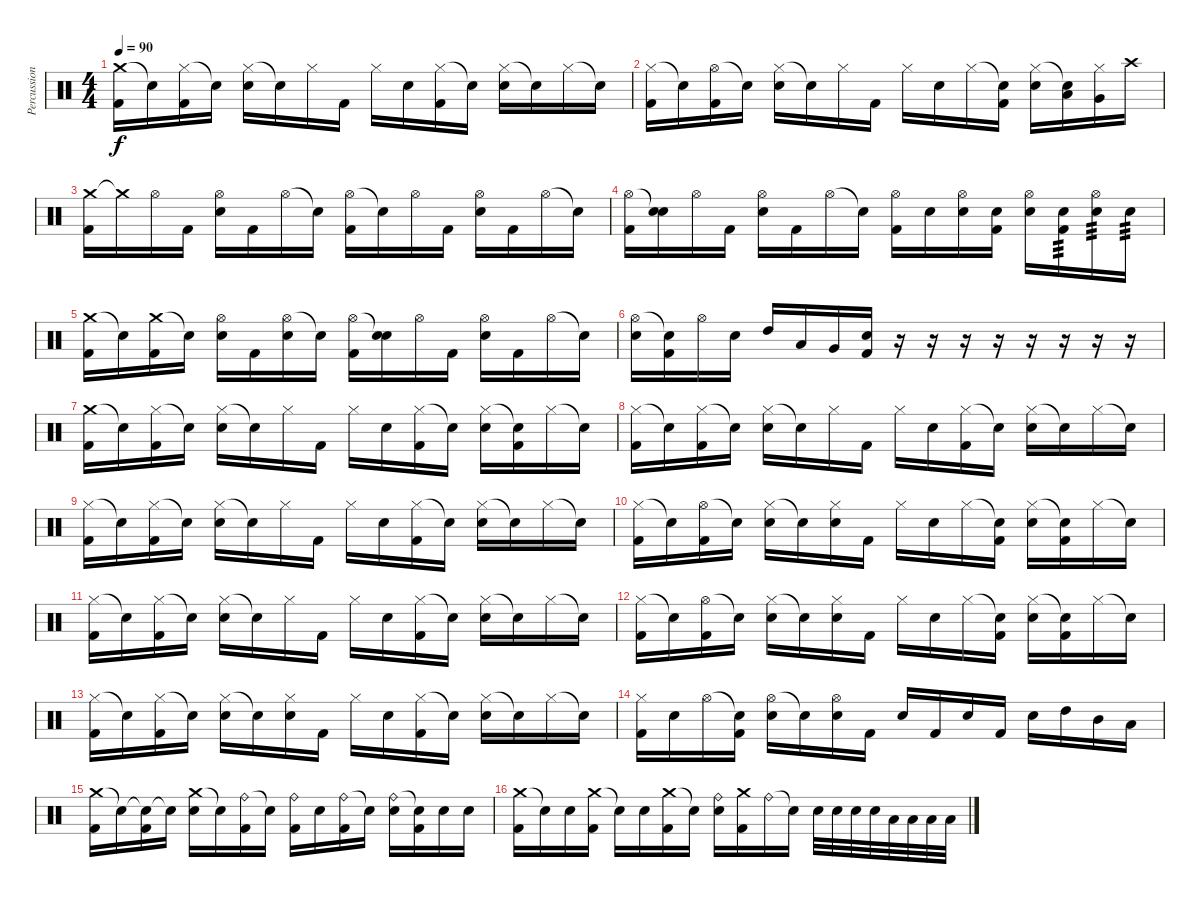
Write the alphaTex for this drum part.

\track ("Percussion" "Percussion") {instrument percussion}
\staff {score}
\articulation defaults
\ts (4 4)
\tempo 90
\clef neutral
\ks c
("Crash medium (hit)" "Kick (hit) 2").16{dy f} "Snare (hit)"{t}.16 ("Hi-Hat (closed)" "Kick (hit) 2").16 "Snare (hit)"{t}.16 ("Hi-Hat (closed)" "Snare (hit) 2").16 "Snare (hit)"{t}.16 "Hi-Hat (closed)".16 "Kick (hit) 2".16 "Hi-Hat (closed)".16 "Snare (hit) 2".16 ("Hi-Hat (closed)" "Kick (hit) 2").16 "Snare (hit)"{t}.16 ("Hi-Hat (closed)" "Snare (hit) 2").16 "Snare (hit)"{t}.16 "Hi-Hat (closed)".16 "Snare (hit)"{t}.16 |
("Hi-Hat (closed)" "Kick (hit) 2").16 "Snare (hit)"{t}.16 ("Hi-Hat (open)" "Kick (hit) 2").16 "Snare (hit)"{t}.16 ("Hi-Hat (closed)" "Snare (hit) 2").16 "Snare (hit)"{t}.16 "Hi-Hat (closed)".16 "Kick (hit) 2".16 "Hi-Hat (closed)".16 "Snare (hit) 2".16 "Hi-Hat (closed)".16 ("Snare (hit)"{t} "Kick (hit) 2").16 ("Hi-Hat (closed)" "Snare (hit) 2").16 ("Snare (hit)"{t} "Low Tom (hit)").16 ("Hi-Hat (closed)" "Very Low Tom (hit)").16 "Crash high (hit)".16 |
("Crash medium (hit)" "Kick (hit) 2").16 "Crash medium (hit)"{t}.16 "Hi-Hat (open)".16 "Kick (hit) 2".16 ("Hi-Hat (open)" "Snare (hit) 2").16 "Kick (hit) 2".16 "Hi-Hat (open)".16 "Snare (hit)"{t}.16 ("Hi-Hat (open)" "Kick (hit) 2").16 "Snare (hit)"{t}.16 "Hi-Hat (open)".16 "Kick (hit) 2".16 ("Hi-Hat (open)" "Snare (hit) 2").16 "Kick (hit) 2".16 "Hi-Hat (open)".16 "Snare (hit)"{t}.16 |
("Hi-Hat (open)" "Kick (hit) 2").16 ("Snare (hit)"{t} "Snare (hit) 2").16 "Hi-Hat (open)".16 "Kick (hit) 2".16 ("Hi-Hat (open)" "Snare (hit) 2").16 "Kick (hit) 2".16 "Hi-Hat (open)".16 "Snare (hit)"{t}.16 ("Hi-Hat (open)" "Kick (hit) 2").16 "Snare (hit) 2".16 ("Hi-Hat (open)" "Snare (hit) 2").16 ("Snare (hit) 2" "Kick (hit) 2").16 ("Hi-Hat (open)" "Snare (hit) 2").16 ("Snare (hit) 2" "Kick (hit) 2").16{tp 3} ("Hi-Hat (open)" "Snare (hit) 2").16{tp 3} "Snare (hit) 2".16{tp 3} |
("Crash medium (hit)" "Kick (hit) 2").16 "Snare (hit)"{t}.16 ("Crash medium (hit)" "Kick (hit) 2").16 "Snare (hit)"{t}.16 ("Hi-Hat (open)" "Snare (hit) 2").16 "Kick (hit) 2".16 ("Hi-Hat (open)" "Snare (hit) 2").16 "Snare (hit)"{t}.16 ("Hi-Hat (open)" "Kick (hit) 2").16 ("Snare (hit)"{t} "Snare (hit) 2").16 "Hi-Hat (open)".16 "Kick (hit) 2".16 ("Hi-Hat (open)" "Snare (hit) 2").16 "Kick (hit) 2".16 "Hi-Hat (open)".16 "Snare (hit)"{t}.16 |
("Hi-Hat (open)" "Snare (hit) 2").16 ("Snare (hit)"{t} "Kick (hit) 2").16 "Hi-Hat (open)".16 "Snare (hit) 2".16 "High Tom (hit)".16 "Low Tom (hit)".16 "Very Low Tom (hit)".16 ("Snare (hit) 2" "Kick (hit) 2").16 r.16 r.16 r.16 r.16 r.16 r.16 r.16 r.16 |
("Crash medium (hit)" "Kick (hit) 2").16 "Snare (hit)"{t}.16 ("Hi-Hat (closed)" "Kick (hit) 2").16 "Snare (hit)"{t}.16 ("Hi-Hat (closed)" "Snare (hit) 2").16 "Snare (hit)"{t}.16 "Hi-Hat (closed)".16 "Kick (hit) 2".16 "Hi-Hat (closed)".16 "Snare (hit) 2".16 ("Hi-Hat (closed)" "Kick (hit) 2").16 "Snare (hit)"{t}.16 ("Hi-Hat (closed)" "Snare (hit) 2").16 ("Snare (hit)"{t} "Kick (hit) 2").16 "Hi-Hat (closed)".16 "Snare (hit)"{t}.16 |
("Hi-Hat (closed)" "Kick (hit) 2").16 "Snare (hit)"{t}.16 ("Hi-Hat (closed)" "Kick (hit) 2").16 "Snare (hit)"{t}.16 ("Hi-Hat (closed)" "Snare (hit) 2").16 "Snare (hit)"{t}.16 "Hi-Hat (closed)".16 "Kick (hit) 2".16 "Hi-Hat (closed)".16 "Snare (hit) 2".16 ("Hi-Hat (closed)" "Kick (hit) 2").16 "Snare (hit)"{t}.16 ("Hi-Hat (closed)" "Snare (hit) 2").16 "Snare (hit)"{t}.16 "Hi-Hat (closed)".16 "Snare (hit)"{t}.16 |
("Hi-Hat (closed)" "Kick (hit) 2").16 "Snare (hit)"{t}.16 ("Hi-Hat (closed)" "Kick (hit) 2").16 "Snare (hit)"{t}.16 ("Hi-Hat (closed)" "Snare (hit) 2").16 "Snare (hit)"{t}.16 "Hi-Hat (closed)".16 "Kick (hit) 2".16 "Hi-Hat (closed)".16 "Snare (hit) 2".16 ("Hi-Hat (closed)" "Kick (hit) 2").16 "Snare (hit)"{t}.16 ("Hi-Hat (closed)" "Snare (hit) 2").16 "Snare (hit)"{t}.16 "Hi-Hat (closed)".16 "Snare (hit)"{t}.16 |
("Hi-Hat (closed)" "Kick (hit) 2").16 "Snare (hit)"{t}.16 ("Hi-Hat (open)" "Kick (hit) 2").16 "Snare (hit)"{t}.16 ("Hi-Hat (closed)" "Snare (hit) 2").16 "Snare (hit)"{t}.16 ("Hi-Hat (closed)" "Snare (hit) 2").16 "Kick (hit) 2".16 "Hi-Hat (closed)".16 "Snare (hit) 2".16 "Hi-Hat (closed)".16 ("Snare (hit)"{t} "Kick (hit) 2").16 ("Hi-Hat (closed)" "Snare (hit) 2").16 ("Snare (hit)"{t} "Kick (hit) 2").16 "Hi-Hat (closed)".16 "Snare (hit)"{t}.16 |
("Hi-Hat (closed)" "Kick (hit) 2").16 "Snare (hit)"{t}.16 ("Hi-Hat (closed)" "Kick (hit) 2").16 "Snare (hit)"{t}.16 ("Hi-Hat (closed)" "Snare (hit) 2").16 "Snare (hit)"{t}.16 "Hi-Hat (closed)".16 "Kick (hit) 2".16 "Hi-Hat (closed)".16 "Snare (hit) 2".16 ("Hi-Hat (closed)" "Kick (hit) 2").16 "Snare (hit)"{t}.16 ("Hi-Hat (closed)" "Snare (hit) 2").16 "Snare (hit)"{t}.16 "Hi-Hat (closed)".16 "Snare (hit)"{t}.16 |
("Hi-Hat (closed)" "Kick (hit) 2").16 "Snare (hit)"{t}.16 ("Hi-Hat (open)" "Kick (hit) 2").16 "Snare (hit)"{t}.16 ("Hi-Hat (closed)" "Snare (hit) 2").16 "Snare (hit)"{t}.16 ("Hi-Hat (closed)" "Snare (hit) 2").16 "Kick (hit) 2".16 "Hi-Hat (closed)".16 "Snare (hit) 2".16 "Hi-Hat (closed)".16 ("Snare (hit)"{t} "Kick (hit) 2").16 ("Hi-Hat (closed)" "Snare (hit) 2").16 ("Snare (hit)"{t} "Kick (hit) 2").16 "Hi-Hat (closed)".16 "Snare (hit)"{t}.16 |
("Hi-Hat (closed)" "Kick (hit) 2").16 "Snare (hit)"{t}.16 ("Hi-Hat (closed)" "Kick (hit) 2").16 "Snare (hit)"{t}.16 ("Hi-Hat (closed)" "Snare (hit) 2").16 "Snare (hit)"{t}.16 ("Hi-Hat (closed)" "Snare (hit) 2").16 "Kick (hit) 2".16 "Hi-Hat (closed)".16 "Snare (hit) 2".16 ("Hi-Hat (closed)" "Kick (hit) 2").16 "Snare (hit)"{t}.16 ("Hi-Hat (closed)" "Snare (hit) 2").16 "Snare (hit)"{t}.16 "Hi-Hat (closed)".16 "Snare (hit)"{t}.16 |
("Hi-Hat (closed)" "Kick (hit) 2").16 "Snare (hit) 2".16 "Hi-Hat (open)".16 ("Snare (hit)"{t} "Kick (hit) 2").16 ("Hi-Hat (open)" "Snare (hit) 2").16 "Snare (hit)"{t}.16 ("Hi-Hat (open)" "Snare (hit) 2").16 "Kick (hit) 2".16 "Snare (hit) 2".16 "Kick (hit) 2".16 "Snare (hit) 2".16 "Kick (hit) 2".16 "Snare (hit) 2".16 "High Tom (hit)".16 "Mid Tom (hit)".16 "Low Tom (hit)".16 |
("Crash medium (hit)" "Kick (hit) 2").16 "Snare (hit)"{t}.16 ("Snare (hit)"{t} "Kick (hit) 2").16 "Snare (hit)"{t}.16 ("Crash medium (hit)" "Snare (hit) 2").16 "Snare (hit)"{t}.16 ("Ride (bell)" "Kick (hit) 2").16 "Snare (hit)"{t}.16 ("Ride (bell)" "Kick (hit) 2").16 "Snare (hit) 2".16 ("Ride (bell)" "Kick (hit) 2").16 "Snare (hit)"{t}.16 ("Ride (bell)" "Snare (hit) 2").16 ("Snare (hit)"{t} "Kick (hit) 2").16 "Snare (hit) 2".16 "Snare (hit) 2".16 |
("Crash medium (hit)" "Kick (hit) 2").16 "Snare (hit)"{t}.16 "Snare (hit) 2".16 ("Crash medium (hit)" "Kick (hit) 2").16 "Snare (hit)"{t}.16 "Snare (hit) 2".16 ("Crash medium (hit)" "Kick (hit) 2").16 "Snare (hit)"{t}.16 ("Ride (bell)" "Snare (hit) 2").16 ("Crash medium (hit)" "Kick (hit) 2").16 "Ride (bell)".16 "Snare (hit)"{t}.16 "Snare (hit) 2".32 "Snare (hit) 2".32 "Snare (hit) 2".32 "Snare (hit) 2".32 "Low Tom (hit)".32 "Low Tom (hit)".32 "Low Tom (hit)".32 "Low Tom (hit)".32
